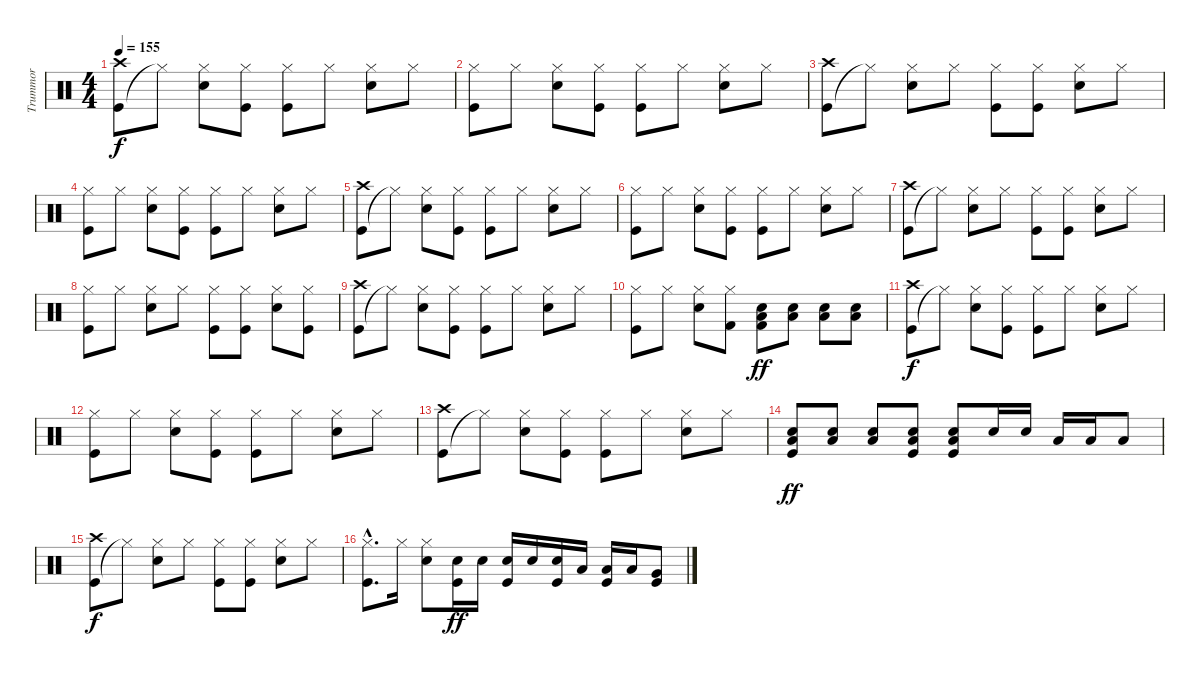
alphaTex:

\track ("Trummor" "Trummor") {instrument percussion}
\staff {score}
\articulation defaults
\ts (4 4)
\tempo 155
\clef neutral
\ks c
("Kick (hit)" "Crash high (hit)").8{dy f} "Hi-Hat (closed)"{t}.8 ("Snare (hit) 2" "Hi-Hat (closed)").8 ("Kick (hit)" "Hi-Hat (closed)").8 ("Kick (hit)" "Hi-Hat (closed)").8 "Hi-Hat (closed)".8 ("Snare (hit) 2" "Hi-Hat (closed)").8 "Hi-Hat (closed)".8 |
("Kick (hit)" "Hi-Hat (closed)").8 "Hi-Hat (closed)".8 ("Snare (hit) 2" "Hi-Hat (closed)").8 ("Kick (hit)" "Hi-Hat (closed)").8 ("Kick (hit)" "Hi-Hat (closed)").8 "Hi-Hat (closed)".8 ("Snare (hit) 2" "Hi-Hat (closed)").8 "Hi-Hat (closed)".8 |
("Kick (hit)" "Crash high (hit)").8 "Hi-Hat (closed)"{t}.8 ("Snare (hit) 2" "Hi-Hat (closed)").8 "Hi-Hat (closed)".8 ("Kick (hit)" "Hi-Hat (closed)").8 ("Kick (hit)" "Hi-Hat (closed)").8 ("Snare (hit) 2" "Hi-Hat (closed)").8 "Hi-Hat (closed)".8 |
("Kick (hit)" "Hi-Hat (closed)").8 "Hi-Hat (closed)".8 ("Snare (hit) 2" "Hi-Hat (closed)").8 ("Kick (hit)" "Hi-Hat (closed)").8 ("Kick (hit)" "Hi-Hat (closed)").8 "Hi-Hat (closed)".8 ("Snare (hit) 2" "Hi-Hat (closed)").8 "Hi-Hat (closed)".8 |
("Kick (hit)" "Crash high (hit)").8 "Hi-Hat (closed)"{t}.8 ("Snare (hit) 2" "Hi-Hat (closed)").8 ("Kick (hit)" "Hi-Hat (closed)").8 ("Kick (hit)" "Hi-Hat (closed)").8 "Hi-Hat (closed)".8 ("Snare (hit) 2" "Hi-Hat (closed)").8 "Hi-Hat (closed)".8 |
("Kick (hit)" "Hi-Hat (closed)").8 "Hi-Hat (closed)".8 ("Snare (hit) 2" "Hi-Hat (closed)").8 ("Kick (hit)" "Hi-Hat (closed)").8 ("Kick (hit)" "Hi-Hat (closed)").8 "Hi-Hat (closed)".8 ("Snare (hit) 2" "Hi-Hat (closed)").8 "Hi-Hat (closed)".8 |
("Kick (hit)" "Crash high (hit)").8 "Hi-Hat (closed)"{t}.8 ("Snare (hit) 2" "Hi-Hat (closed)").8 "Hi-Hat (closed)".8 ("Kick (hit)" "Hi-Hat (closed)").8 ("Kick (hit)" "Hi-Hat (closed)").8 ("Snare (hit) 2" "Hi-Hat (closed)").8 "Hi-Hat (closed)".8 |
("Kick (hit)" "Hi-Hat (closed)").8 "Hi-Hat (closed)".8 ("Snare (hit) 2" "Hi-Hat (closed)").8 "Hi-Hat (closed)".8 ("Kick (hit)" "Hi-Hat (closed)").8 ("Kick (hit)" "Hi-Hat (closed)").8 ("Snare (hit) 2" "Hi-Hat (closed)").8 ("Kick (hit)" "Hi-Hat (closed)").8 |
("Kick (hit)" "Crash high (hit)").8 "Hi-Hat (closed)"{t}.8 ("Snare (hit) 2" "Hi-Hat (closed)").8 ("Kick (hit)" "Hi-Hat (closed)").8 ("Kick (hit)" "Hi-Hat (closed)").8 "Hi-Hat (closed)".8 ("Snare (hit) 2" "Hi-Hat (closed)").8 "Hi-Hat (closed)".8 |
("Kick (hit)" "Hi-Hat (closed)").8 "Hi-Hat (closed)".8 ("Snare (hit) 2" "Hi-Hat (closed)").8 ("Kick (hit) 2" "Hi-Hat (closed)").8 ("Snare (hit) 2" "Kick (hit) 2" "Low Floor Tom (hit)").8{dy ff} ("Snare (hit) 2" "Low Floor Tom (hit)").8 ("Snare (hit) 2" "Low Floor Tom (hit)").8 ("Snare (hit) 2" "Low Floor Tom (hit)").8 |
("Kick (hit)" "Crash high (hit)").8{dy f} "Hi-Hat (closed)"{t}.8 ("Snare (hit) 2" "Hi-Hat (closed)").8 ("Kick (hit)" "Hi-Hat (closed)").8 ("Kick (hit)" "Hi-Hat (closed)").8 "Hi-Hat (closed)".8 ("Snare (hit) 2" "Hi-Hat (closed)").8 "Hi-Hat (closed)".8 |
("Kick (hit)" "Hi-Hat (closed)").8 "Hi-Hat (closed)".8 ("Snare (hit) 2" "Hi-Hat (closed)").8 ("Kick (hit)" "Hi-Hat (closed)").8 ("Kick (hit)" "Hi-Hat (closed)").8 "Hi-Hat (closed)".8 ("Snare (hit) 2" "Hi-Hat (closed)").8 "Hi-Hat (closed)".8 |
("Kick (hit)" "Crash high (hit)").8 "Hi-Hat (closed)"{t}.8 ("Snare (hit) 2" "Hi-Hat (closed)").8 ("Kick (hit)" "Hi-Hat (closed)").8 ("Kick (hit)" "Hi-Hat (closed)").8 "Hi-Hat (closed)".8 ("Snare (hit) 2" "Hi-Hat (closed)").8 "Hi-Hat (closed)".8 |
("Snare (hit) 2" "Kick (hit)" "Low Floor Tom (hit)").8{dy ff} ("Snare (hit) 2" "Low Floor Tom (hit)").8 ("Snare (hit) 2" "Low Floor Tom (hit)").8 ("Snare (hit) 2" "Kick (hit)" "Low Floor Tom (hit)").8 ("Snare (hit) 2" "Kick (hit)" "Low Floor Tom (hit)").8 "Snare (hit) 2".16 "Snare (hit) 2".16 "Low Floor Tom (hit)".16 "Low Floor Tom (hit)".16 "Low Floor Tom (hit)".8 |
("Kick (hit)" "Crash high (hit)").8{dy f} "Hi-Hat (closed)"{t}.8 ("Snare (hit) 2" "Hi-Hat (closed)").8 "Hi-Hat (closed)".8 ("Kick (hit)" "Hi-Hat (closed)").8 ("Kick (hit)" "Hi-Hat (closed)").8 ("Snare (hit) 2" "Hi-Hat (closed)").8 "Hi-Hat (closed)".8 |
("Kick (hit)"{hac} "Hi-Hat (closed)"{hac}).8{d} "Hi-Hat (closed)".16 ("Snare (hit) 2" "Hi-Hat (closed)").8 ("Kick (hit)" "Snare (hit) 2").16{dy ff} "Snare (hit) 2".16 ("Kick (hit)" "Snare (hit) 2").16 "Snare (hit) 2".16 ("Kick (hit)" "Snare (hit) 2").16 "Low Floor Tom (hit)".16 ("Kick (hit)" "Low Floor Tom (hit)").16 "Low Tom (hit)".16 ("Kick (hit)" "Very Low Tom (hit)").8
